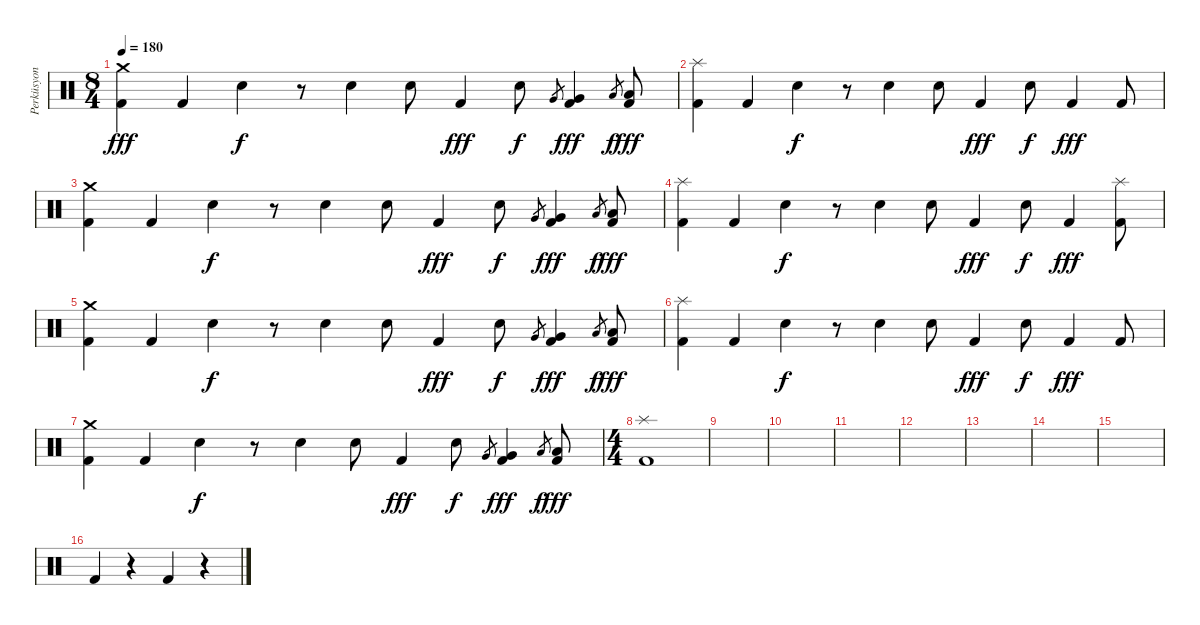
\track ("Perküsyon" "Perküsyon") {instrument percussion}
\staff {score}
\articulation defaults
\ts (8 4)
\tempo 180
\clef neutral
\ks c
("Crash medium (hit)" "Kick (hit) 2").4{dy fff} "Kick (hit) 2".4 "Electric Snare (hit)".4{dy f} r.8 "Electric Snare (hit)".4 "Electric Snare (hit)".8 "Kick (hit) 2".4{dy fff} "Electric Snare (hit)".8{dy f} "Very Low Tom (hit)".8{gr} ("Very Low Tom (hit)" "Kick (hit) 2").4{dy fff} "Low Floor Tom (hit)".8{gr dy f} ("Low Floor Tom (hit)" "Kick (hit) 2").8{dy fff} |
("Splash (hit)" "Kick (hit) 2").4 "Kick (hit) 2".4 "Electric Snare (hit)".4{dy f} r.8 "Electric Snare (hit)".4 "Electric Snare (hit)".8 "Kick (hit) 2".4{dy fff} "Electric Snare (hit)".8{dy f} "Kick (hit) 2".4{dy fff} "Kick (hit) 2".8 |
("Crash medium (hit)" "Kick (hit) 2").4 "Kick (hit) 2".4 "Electric Snare (hit)".4{dy f} r.8 "Electric Snare (hit)".4 "Electric Snare (hit)".8 "Kick (hit) 2".4{dy fff} "Electric Snare (hit)".8{dy f} "Very Low Tom (hit)".8{gr} ("Very Low Tom (hit)" "Kick (hit) 2").4{dy fff} "Low Floor Tom (hit)".8{gr dy f} ("Low Floor Tom (hit)" "Kick (hit) 2").8{dy fff} |
("Splash (hit)" "Kick (hit) 2").4 "Kick (hit) 2".4 "Electric Snare (hit)".4{dy f} r.8 "Electric Snare (hit)".4 "Electric Snare (hit)".8 "Kick (hit) 2".4{dy fff} "Electric Snare (hit)".8{dy f} "Kick (hit) 2".4{dy fff} ("Splash (hit)" "Kick (hit) 2").8 |
("Crash medium (hit)" "Kick (hit) 2").4 "Kick (hit) 2".4 "Electric Snare (hit)".4{dy f} r.8 "Electric Snare (hit)".4 "Electric Snare (hit)".8 "Kick (hit) 2".4{dy fff} "Electric Snare (hit)".8{dy f} "Very Low Tom (hit)".8{gr} ("Very Low Tom (hit)" "Kick (hit) 2").4{dy fff} "Low Floor Tom (hit)".8{gr dy f} ("Low Floor Tom (hit)" "Kick (hit) 2").8{dy fff} |
("Splash (hit)" "Kick (hit) 2").4 "Kick (hit) 2".4 "Electric Snare (hit)".4{dy f} r.8 "Electric Snare (hit)".4 "Electric Snare (hit)".8 "Kick (hit) 2".4{dy fff} "Electric Snare (hit)".8{dy f} "Kick (hit) 2".4{dy fff} "Kick (hit) 2".8 |
("Crash medium (hit)" "Kick (hit) 2").4 "Kick (hit) 2".4 "Electric Snare (hit)".4{dy f} r.8 "Electric Snare (hit)".4 "Electric Snare (hit)".8 "Kick (hit) 2".4{dy fff} "Electric Snare (hit)".8{dy f} "Very Low Tom (hit)".8{gr} ("Very Low Tom (hit)" "Kick (hit) 2").4{dy fff} "Low Floor Tom (hit)".8{gr dy f} ("Low Floor Tom (hit)" "Kick (hit) 2").8{dy fff} |
\ts (4 4)
("Splash (hit)" "Kick (hit) 2").1 |
|
|
|
|
|
|
|
"Kick (hit) 2".4 r.4 "Kick (hit) 2".4 r.4
